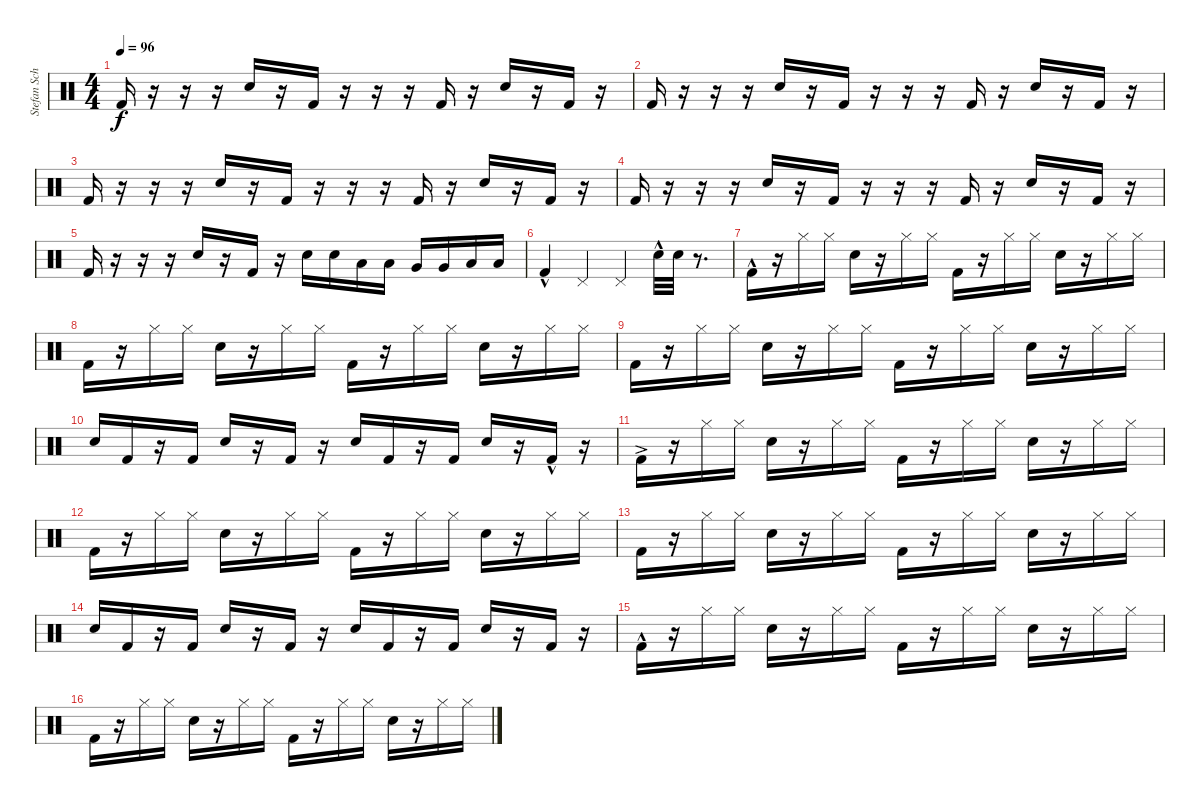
\track ("Stefan Schwarzmann" "Stefan Sch") {instrument percussion}
\staff {score}
\articulation defaults
\ts (4 4)
\tempo 96
\clef neutral
\ks c "Kick (hit) 2".16{dy f}
r.16 r.16 r.16 "Snare (hit) 2".16 r.16 "Kick (hit) 2".16 r.16 r.16 r.16 "Kick (hit) 2".16 r.16 "Snare (hit) 2".16 r.16 "Kick (hit) 2".16 r.16 |
"Kick (hit) 2".16 r.16 r.16 r.16 "Snare (hit) 2".16 r.16 "Kick (hit) 2".16 r.16 r.16 r.16 "Kick (hit) 2".16 r.16 "Snare (hit) 2".16 r.16 "Kick (hit) 2".16 r.16 |
"Kick (hit) 2".16 r.16 r.16 r.16 "Snare (hit) 2".16 r.16 "Kick (hit) 2".16 r.16 r.16 r.16 "Kick (hit) 2".16 r.16 "Snare (hit) 2".16 r.16 "Kick (hit) 2".16 r.16 |
"Kick (hit) 2".16 r.16 r.16 r.16 "Snare (hit) 2".16 r.16 "Kick (hit) 2".16 r.16 r.16 r.16 "Kick (hit) 2".16 r.16 "Snare (hit) 2".16 r.16 "Kick (hit) 2".16 r.16 |
"Kick (hit) 2".16 r.16 r.16 r.16 "Snare (hit) 2".16 r.16 "Kick (hit) 2".16 r.16 "Snare (hit) 2".16 "Snare (hit) 2".16 "Low Tom (hit)".16 "Low Tom (hit)".16 "Very Low Tom (hit)".16 "Very Low Tom (hit)".16 "Low Floor Tom (hit)".16 "Low Floor Tom (hit)".16 |
"Kick (hit) 2"{hac}.4 "Pedal Hi-Hat (hit)".4 "Pedal Hi-Hat (hit)".4 "Snare (hit) 2"{hac}.32 "Snare (hit) 2".32 r.8{d} |
"Kick (hit) 2"{hac}.16 r.16 "Hi-Hat (closed)".16 "Hi-Hat (closed)".16 "Snare (hit) 2".16 r.16 "Hi-Hat (closed)".16 "Hi-Hat (closed)".16 "Kick (hit) 2".16 r.16 "Hi-Hat (closed)".16 "Hi-Hat (closed)".16 "Snare (hit) 2".16 r.16 "Hi-Hat (closed)".16 "Hi-Hat (closed)".16 |
"Kick (hit) 2".16 r.16 "Hi-Hat (closed)".16 "Hi-Hat (closed)".16 "Snare (hit) 2".16 r.16 "Hi-Hat (closed)".16 "Hi-Hat (closed)".16 "Kick (hit) 2".16 r.16 "Hi-Hat (closed)".16 "Hi-Hat (closed)".16 "Snare (hit) 2".16 r.16 "Hi-Hat (closed)".16 "Hi-Hat (closed)".16 |
"Kick (hit) 2".16 r.16 "Hi-Hat (closed)".16 "Hi-Hat (closed)".16 "Snare (hit) 2".16 r.16 "Hi-Hat (closed)".16 "Hi-Hat (closed)".16 "Kick (hit) 2".16 r.16 "Hi-Hat (closed)".16 "Hi-Hat (closed)".16 "Snare (hit) 2".16 r.16 "Hi-Hat (closed)".16 "Hi-Hat (closed)".16 |
"Snare (hit) 2".16 "Kick (hit) 2".16 r.16 "Kick (hit) 2".16 "Snare (hit) 2".16 r.16 "Kick (hit) 2".16 r.16 "Snare (hit) 2".16 "Kick (hit) 2".16 r.16 "Kick (hit) 2".16 "Snare (hit) 2".16 r.16 "Kick (hit) 2"{hac}.16 r.16 |
"Kick (hit) 2"{ac}.16 r.16 "Hi-Hat (closed)".16 "Hi-Hat (closed)".16 "Snare (hit) 2".16 r.16 "Hi-Hat (closed)".16 "Hi-Hat (closed)".16 "Kick (hit) 2".16 r.16 "Hi-Hat (closed)".16 "Hi-Hat (closed)".16 "Snare (hit) 2".16 r.16 "Hi-Hat (closed)".16 "Hi-Hat (closed)".16 |
"Kick (hit) 2".16 r.16 "Hi-Hat (closed)".16 "Hi-Hat (closed)".16 "Snare (hit) 2".16 r.16 "Hi-Hat (closed)".16 "Hi-Hat (closed)".16 "Kick (hit) 2".16 r.16 "Hi-Hat (closed)".16 "Hi-Hat (closed)".16 "Snare (hit) 2".16 r.16 "Hi-Hat (closed)".16 "Hi-Hat (closed)".16 |
"Kick (hit) 2".16 r.16 "Hi-Hat (closed)".16 "Hi-Hat (closed)".16 "Snare (hit) 2".16 r.16 "Hi-Hat (closed)".16 "Hi-Hat (closed)".16 "Kick (hit) 2".16 r.16 "Hi-Hat (closed)".16 "Hi-Hat (closed)".16 "Snare (hit) 2".16 r.16 "Hi-Hat (closed)".16 "Hi-Hat (closed)".16 |
"Snare (hit) 2".16 "Kick (hit) 2".16 r.16 "Kick (hit) 2".16 "Snare (hit) 2".16 r.16 "Kick (hit) 2".16 r.16 "Snare (hit) 2".16 "Kick (hit) 2".16 r.16 "Kick (hit) 2".16 "Snare (hit) 2".16 r.16 "Kick (hit) 2".16 r.16 |
"Kick (hit) 2"{hac}.16 r.16 "Hi-Hat (closed)".16 "Hi-Hat (closed)".16 "Snare (hit) 2".16 r.16 "Hi-Hat (closed)".16 "Hi-Hat (closed)".16 "Kick (hit) 2".16 r.16 "Hi-Hat (closed)".16 "Hi-Hat (closed)".16 "Snare (hit) 2".16 r.16 "Hi-Hat (closed)".16 "Hi-Hat (closed)".16 |
"Kick (hit) 2".16 r.16 "Hi-Hat (closed)".16 "Hi-Hat (closed)".16 "Snare (hit) 2".16 r.16 "Hi-Hat (closed)".16 "Hi-Hat (closed)".16 "Kick (hit) 2".16 r.16 "Hi-Hat (closed)".16 "Hi-Hat (closed)".16 "Snare (hit) 2".16 r.16 "Hi-Hat (closed)".16 "Hi-Hat (closed)".16
